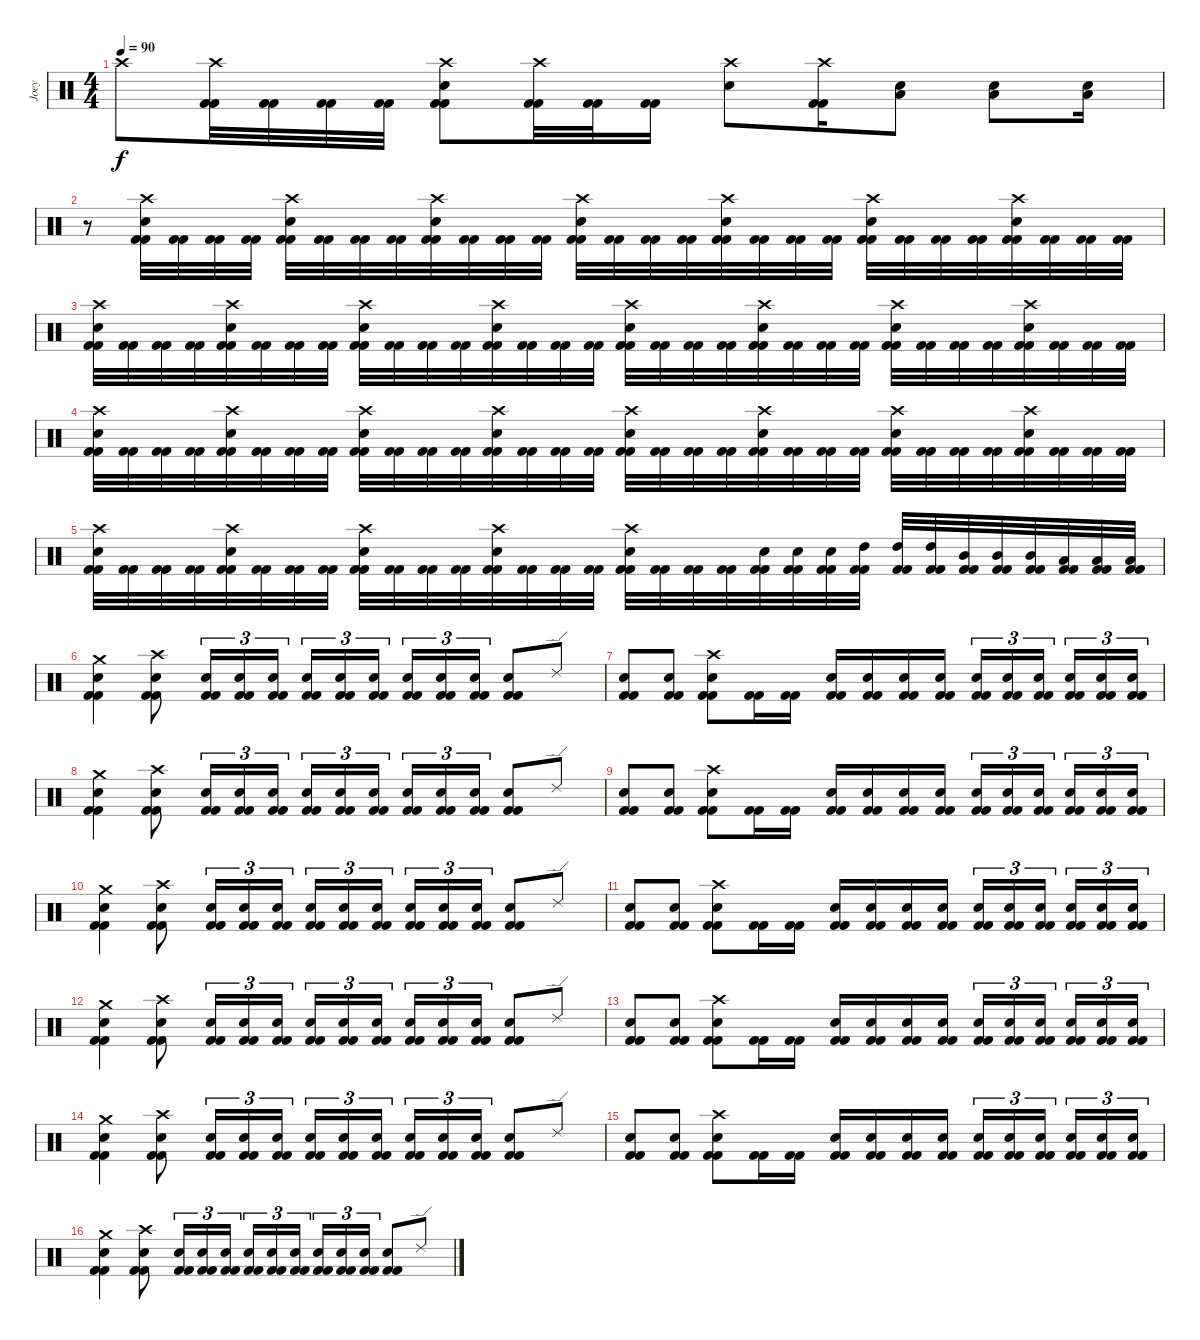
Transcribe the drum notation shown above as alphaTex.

\track ("Joey" "Joey") {instrument percussion}
\staff {score}
\articulation defaults
\ts (4 4)
\tempo 90
\clef neutral
\ks c "Crash high (hit)".8{dy f}
("Crash high (hit)" "Kick (hit) 2" "Kick (hit) 2").32 ("Kick (hit) 2" "Kick (hit) 2").32 ("Kick (hit) 2" "Kick (hit) 2").32 ("Kick (hit) 2" "Kick (hit) 2").32 ("Electric Snare (hit)" "Crash high (hit)" "Kick (hit) 2" "Kick (hit) 2").8 ("Crash high (hit)" "Kick (hit) 2" "Kick (hit) 2").32 ("Kick (hit) 2" "Kick (hit) 2").32 ("Kick (hit) 2" "Kick (hit) 2").16 ("Electric Snare (hit)" "Crash high (hit)").8 ("Crash high (hit)" "Kick (hit) 2" "Kick (hit) 2").16 ("Electric Snare (hit)" "Low Tom (hit)").8 ("Electric Snare (hit)" "Low Tom (hit)").8 ("Electric Snare (hit)" "Low Tom (hit)").16 |
r.8 ("Electric Snare (hit)" "Crash high (hit)" "Kick (hit) 2" "Kick (hit) 2").32 ("Kick (hit) 2" "Kick (hit) 2").32 ("Kick (hit) 2" "Kick (hit) 2").32 ("Kick (hit) 2" "Kick (hit) 2").32 ("Electric Snare (hit)" "Crash high (hit)" "Kick (hit) 2" "Kick (hit) 2").32 ("Kick (hit) 2" "Kick (hit) 2").32 ("Kick (hit) 2" "Kick (hit) 2").32 ("Kick (hit) 2" "Kick (hit) 2").32 ("Electric Snare (hit)" "Crash high (hit)" "Kick (hit) 2" "Kick (hit) 2").32 ("Kick (hit) 2" "Kick (hit) 2").32 ("Kick (hit) 2" "Kick (hit) 2").32 ("Kick (hit) 2" "Kick (hit) 2").32 ("Electric Snare (hit)" "Crash high (hit)" "Kick (hit) 2" "Kick (hit) 2").32 ("Kick (hit) 2" "Kick (hit) 2").32 ("Kick (hit) 2" "Kick (hit) 2").32 ("Kick (hit) 2" "Kick (hit) 2").32 ("Electric Snare (hit)" "Crash high (hit)" "Kick (hit) 2" "Kick (hit) 2").32 ("Kick (hit) 2" "Kick (hit) 2").32 ("Kick (hit) 2" "Kick (hit) 2").32 ("Kick (hit) 2" "Kick (hit) 2").32 ("Electric Snare (hit)" "Crash high (hit)" "Kick (hit) 2" "Kick (hit) 2").32 ("Kick (hit) 2" "Kick (hit) 2").32 ("Kick (hit) 2" "Kick (hit) 2").32 ("Kick (hit) 2" "Kick (hit) 2").32 ("Electric Snare (hit)" "Crash high (hit)" "Kick (hit) 2" "Kick (hit) 2").32 ("Kick (hit) 2" "Kick (hit) 2").32 ("Kick (hit) 2" "Kick (hit) 2").32 ("Kick (hit) 2" "Kick (hit) 2").32 |
("Electric Snare (hit)" "Crash high (hit)" "Kick (hit) 2" "Kick (hit) 2").32 ("Kick (hit) 2" "Kick (hit) 2").32 ("Kick (hit) 2" "Kick (hit) 2").32 ("Kick (hit) 2" "Kick (hit) 2").32 ("Electric Snare (hit)" "Crash high (hit)" "Kick (hit) 2" "Kick (hit) 2").32 ("Kick (hit) 2" "Kick (hit) 2").32 ("Kick (hit) 2" "Kick (hit) 2").32 ("Kick (hit) 2" "Kick (hit) 2").32 ("Electric Snare (hit)" "Crash high (hit)" "Kick (hit) 2" "Kick (hit) 2").32 ("Kick (hit) 2" "Kick (hit) 2").32 ("Kick (hit) 2" "Kick (hit) 2").32 ("Kick (hit) 2" "Kick (hit) 2").32 ("Electric Snare (hit)" "Crash high (hit)" "Kick (hit) 2" "Kick (hit) 2").32 ("Kick (hit) 2" "Kick (hit) 2").32 ("Kick (hit) 2" "Kick (hit) 2").32 ("Kick (hit) 2" "Kick (hit) 2").32 ("Electric Snare (hit)" "Crash high (hit)" "Kick (hit) 2" "Kick (hit) 2").32 ("Kick (hit) 2" "Kick (hit) 2").32 ("Kick (hit) 2" "Kick (hit) 2").32 ("Kick (hit) 2" "Kick (hit) 2").32 ("Electric Snare (hit)" "Crash high (hit)" "Kick (hit) 2" "Kick (hit) 2").32 ("Kick (hit) 2" "Kick (hit) 2").32 ("Kick (hit) 2" "Kick (hit) 2").32 ("Kick (hit) 2" "Kick (hit) 2").32 ("Electric Snare (hit)" "Crash high (hit)" "Kick (hit) 2" "Kick (hit) 2").32 ("Kick (hit) 2" "Kick (hit) 2").32 ("Kick (hit) 2" "Kick (hit) 2").32 ("Kick (hit) 2" "Kick (hit) 2").32 ("Electric Snare (hit)" "Crash high (hit)" "Kick (hit) 2" "Kick (hit) 2").32 ("Kick (hit) 2" "Kick (hit) 2").32 ("Kick (hit) 2" "Kick (hit) 2").32 ("Kick (hit) 2" "Kick (hit) 2").32 |
("Electric Snare (hit)" "Crash high (hit)" "Kick (hit) 2" "Kick (hit) 2").32 ("Kick (hit) 2" "Kick (hit) 2").32 ("Kick (hit) 2" "Kick (hit) 2").32 ("Kick (hit) 2" "Kick (hit) 2").32 ("Electric Snare (hit)" "Crash high (hit)" "Kick (hit) 2" "Kick (hit) 2").32 ("Kick (hit) 2" "Kick (hit) 2").32 ("Kick (hit) 2" "Kick (hit) 2").32 ("Kick (hit) 2" "Kick (hit) 2").32 ("Electric Snare (hit)" "Crash high (hit)" "Kick (hit) 2" "Kick (hit) 2").32 ("Kick (hit) 2" "Kick (hit) 2").32 ("Kick (hit) 2" "Kick (hit) 2").32 ("Kick (hit) 2" "Kick (hit) 2").32 ("Electric Snare (hit)" "Crash high (hit)" "Kick (hit) 2" "Kick (hit) 2").32 ("Kick (hit) 2" "Kick (hit) 2").32 ("Kick (hit) 2" "Kick (hit) 2").32 ("Kick (hit) 2" "Kick (hit) 2").32 ("Electric Snare (hit)" "Crash high (hit)" "Kick (hit) 2" "Kick (hit) 2").32 ("Kick (hit) 2" "Kick (hit) 2").32 ("Kick (hit) 2" "Kick (hit) 2").32 ("Kick (hit) 2" "Kick (hit) 2").32 ("Electric Snare (hit)" "Crash high (hit)" "Kick (hit) 2" "Kick (hit) 2").32 ("Kick (hit) 2" "Kick (hit) 2").32 ("Kick (hit) 2" "Kick (hit) 2").32 ("Kick (hit) 2" "Kick (hit) 2").32 ("Electric Snare (hit)" "Crash high (hit)" "Kick (hit) 2" "Kick (hit) 2").32 ("Kick (hit) 2" "Kick (hit) 2").32 ("Kick (hit) 2" "Kick (hit) 2").32 ("Kick (hit) 2" "Kick (hit) 2").32 ("Electric Snare (hit)" "Crash high (hit)" "Kick (hit) 2" "Kick (hit) 2").32 ("Kick (hit) 2" "Kick (hit) 2").32 ("Kick (hit) 2" "Kick (hit) 2").32 ("Kick (hit) 2" "Kick (hit) 2").32 |
("Electric Snare (hit)" "Crash high (hit)" "Kick (hit) 2" "Kick (hit) 2").32 ("Kick (hit) 2" "Kick (hit) 2").32 ("Kick (hit) 2" "Kick (hit) 2").32 ("Kick (hit) 2" "Kick (hit) 2").32 ("Electric Snare (hit)" "Crash high (hit)" "Kick (hit) 2" "Kick (hit) 2").32 ("Kick (hit) 2" "Kick (hit) 2").32 ("Kick (hit) 2" "Kick (hit) 2").32 ("Kick (hit) 2" "Kick (hit) 2").32 ("Electric Snare (hit)" "Crash high (hit)" "Kick (hit) 2" "Kick (hit) 2").32 ("Kick (hit) 2" "Kick (hit) 2").32 ("Kick (hit) 2" "Kick (hit) 2").32 ("Kick (hit) 2" "Kick (hit) 2").32 ("Electric Snare (hit)" "Crash high (hit)" "Kick (hit) 2" "Kick (hit) 2").32 ("Kick (hit) 2" "Kick (hit) 2").32 ("Kick (hit) 2" "Kick (hit) 2").32 ("Kick (hit) 2" "Kick (hit) 2").32 ("Electric Snare (hit)" "Crash high (hit)" "Kick (hit) 2" "Kick (hit) 2").32 ("Kick (hit) 2" "Kick (hit) 2").32 ("Kick (hit) 2" "Kick (hit) 2").32 ("Kick (hit) 2" "Kick (hit) 2").32 ("Electric Snare (hit)" "Kick (hit) 2" "Kick (hit) 2").32 ("Electric Snare (hit)" "Kick (hit) 2" "Kick (hit) 2").32 ("Electric Snare (hit)" "Kick (hit) 2" "Kick (hit) 2").32 ("High Tom (hit)" "Kick (hit) 2" "Kick (hit) 2").32 ("High Tom (hit)" "Kick (hit) 2" "Kick (hit) 2").32 ("High Tom (hit)" "Kick (hit) 2" "Kick (hit) 2").32 ("Mid Tom (hit)" "Kick (hit) 2" "Kick (hit) 2").32 ("Mid Tom (hit)" "Kick (hit) 2" "Kick (hit) 2").32 ("Mid Tom (hit)" "Kick (hit) 2" "Kick (hit) 2").32 ("Low Tom (hit)" "Kick (hit) 2" "Kick (hit) 2").32 ("Low Tom (hit)" "Kick (hit) 2" "Kick (hit) 2").32 ("Low Tom (hit)" "Kick (hit) 2" "Kick (hit) 2").32 |
("Electric Snare (hit)" "Crash medium (hit)" "Kick (hit) 2" "Kick (hit) 2").4 ("Electric Snare (hit)" "Crash high (hit)" "Kick (hit) 2" "Kick (hit) 2").8 ("Electric Snare (hit)" "Kick (hit) 2" "Kick (hit) 2").16{tu (3 2)} ("Electric Snare (hit)" "Kick (hit) 2" "Kick (hit) 2").16{tu (3 2)} ("Electric Snare (hit)" "Kick (hit) 2" "Kick (hit) 2").16{tu (3 2)} ("Electric Snare (hit)" "Kick (hit) 2" "Kick (hit) 2").16{tu (3 2)} ("Electric Snare (hit)" "Kick (hit) 2" "Kick (hit) 2").16{tu (3 2)} ("Electric Snare (hit)" "Kick (hit) 2" "Kick (hit) 2").16{tu (3 2)} ("Electric Snare (hit)" "Kick (hit) 2" "Kick (hit) 2").16{tu (3 2)} ("Electric Snare (hit)" "Kick (hit) 2" "Kick (hit) 2").16{tu (3 2)} ("Electric Snare (hit)" "Kick (hit) 2" "Kick (hit) 2").16{tu (3 2)} ("Electric Snare (hit)" "Kick (hit) 2" "Kick (hit) 2").8 "Ride (edge) 2".8 |
("Electric Snare (hit)" "Kick (hit) 2" "Kick (hit) 2").8 ("Electric Snare (hit)" "Kick (hit) 2" "Kick (hit) 2").8 ("Electric Snare (hit)" "Crash high (hit)" "Kick (hit) 2" "Kick (hit) 2").8 ("Kick (hit) 2" "Kick (hit) 2").16 ("Kick (hit) 2" "Kick (hit) 2").16 ("Electric Snare (hit)" "Kick (hit) 2" "Kick (hit) 2").16 ("Electric Snare (hit)" "Kick (hit) 2" "Kick (hit) 2").16 ("Electric Snare (hit)" "Kick (hit) 2" "Kick (hit) 2").16 ("Electric Snare (hit)" "Kick (hit) 2" "Kick (hit) 2").16 ("Electric Snare (hit)" "Kick (hit) 2" "Kick (hit) 2").16{tu (3 2)} ("Electric Snare (hit)" "Kick (hit) 2" "Kick (hit) 2").16{tu (3 2)} ("Electric Snare (hit)" "Kick (hit) 2" "Kick (hit) 2").16{tu (3 2)} ("Electric Snare (hit)" "Kick (hit) 2" "Kick (hit) 2").16{tu (3 2)} ("Electric Snare (hit)" "Kick (hit) 2" "Kick (hit) 2").16{tu (3 2)} ("Electric Snare (hit)" "Kick (hit) 2" "Kick (hit) 2").16{tu (3 2)} |
("Electric Snare (hit)" "Crash medium (hit)" "Kick (hit) 2" "Kick (hit) 2").4 ("Electric Snare (hit)" "Crash high (hit)" "Kick (hit) 2" "Kick (hit) 2").8 ("Electric Snare (hit)" "Kick (hit) 2" "Kick (hit) 2").16{tu (3 2)} ("Electric Snare (hit)" "Kick (hit) 2" "Kick (hit) 2").16{tu (3 2)} ("Electric Snare (hit)" "Kick (hit) 2" "Kick (hit) 2").16{tu (3 2)} ("Electric Snare (hit)" "Kick (hit) 2" "Kick (hit) 2").16{tu (3 2)} ("Electric Snare (hit)" "Kick (hit) 2" "Kick (hit) 2").16{tu (3 2)} ("Electric Snare (hit)" "Kick (hit) 2" "Kick (hit) 2").16{tu (3 2)} ("Electric Snare (hit)" "Kick (hit) 2" "Kick (hit) 2").16{tu (3 2)} ("Electric Snare (hit)" "Kick (hit) 2" "Kick (hit) 2").16{tu (3 2)} ("Electric Snare (hit)" "Kick (hit) 2" "Kick (hit) 2").16{tu (3 2)} ("Electric Snare (hit)" "Kick (hit) 2" "Kick (hit) 2").8 "Ride (edge) 2".8 |
("Electric Snare (hit)" "Kick (hit) 2" "Kick (hit) 2").8 ("Electric Snare (hit)" "Kick (hit) 2" "Kick (hit) 2").8 ("Electric Snare (hit)" "Crash high (hit)" "Kick (hit) 2" "Kick (hit) 2").8 ("Kick (hit) 2" "Kick (hit) 2").16 ("Kick (hit) 2" "Kick (hit) 2").16 ("Electric Snare (hit)" "Kick (hit) 2" "Kick (hit) 2").16 ("Electric Snare (hit)" "Kick (hit) 2" "Kick (hit) 2").16 ("Electric Snare (hit)" "Kick (hit) 2" "Kick (hit) 2").16 ("Electric Snare (hit)" "Kick (hit) 2" "Kick (hit) 2").16 ("Electric Snare (hit)" "Kick (hit) 2" "Kick (hit) 2").16{tu (3 2)} ("Electric Snare (hit)" "Kick (hit) 2" "Kick (hit) 2").16{tu (3 2)} ("Electric Snare (hit)" "Kick (hit) 2" "Kick (hit) 2").16{tu (3 2)} ("Electric Snare (hit)" "Kick (hit) 2" "Kick (hit) 2").16{tu (3 2)} ("Electric Snare (hit)" "Kick (hit) 2" "Kick (hit) 2").16{tu (3 2)} ("Electric Snare (hit)" "Kick (hit) 2" "Kick (hit) 2").16{tu (3 2)} |
("Electric Snare (hit)" "Crash medium (hit)" "Kick (hit) 2" "Kick (hit) 2").4 ("Electric Snare (hit)" "Crash high (hit)" "Kick (hit) 2" "Kick (hit) 2").8 ("Electric Snare (hit)" "Kick (hit) 2" "Kick (hit) 2").16{tu (3 2)} ("Electric Snare (hit)" "Kick (hit) 2" "Kick (hit) 2").16{tu (3 2)} ("Electric Snare (hit)" "Kick (hit) 2" "Kick (hit) 2").16{tu (3 2)} ("Electric Snare (hit)" "Kick (hit) 2" "Kick (hit) 2").16{tu (3 2)} ("Electric Snare (hit)" "Kick (hit) 2" "Kick (hit) 2").16{tu (3 2)} ("Electric Snare (hit)" "Kick (hit) 2" "Kick (hit) 2").16{tu (3 2)} ("Electric Snare (hit)" "Kick (hit) 2" "Kick (hit) 2").16{tu (3 2)} ("Electric Snare (hit)" "Kick (hit) 2" "Kick (hit) 2").16{tu (3 2)} ("Electric Snare (hit)" "Kick (hit) 2" "Kick (hit) 2").16{tu (3 2)} ("Electric Snare (hit)" "Kick (hit) 2" "Kick (hit) 2").8 "Ride (edge) 2".8 |
("Electric Snare (hit)" "Kick (hit) 2" "Kick (hit) 2").8 ("Electric Snare (hit)" "Kick (hit) 2" "Kick (hit) 2").8 ("Electric Snare (hit)" "Crash high (hit)" "Kick (hit) 2" "Kick (hit) 2").8 ("Kick (hit) 2" "Kick (hit) 2").16 ("Kick (hit) 2" "Kick (hit) 2").16 ("Electric Snare (hit)" "Kick (hit) 2" "Kick (hit) 2").16 ("Electric Snare (hit)" "Kick (hit) 2" "Kick (hit) 2").16 ("Electric Snare (hit)" "Kick (hit) 2" "Kick (hit) 2").16 ("Electric Snare (hit)" "Kick (hit) 2" "Kick (hit) 2").16 ("Electric Snare (hit)" "Kick (hit) 2" "Kick (hit) 2").16{tu (3 2)} ("Electric Snare (hit)" "Kick (hit) 2" "Kick (hit) 2").16{tu (3 2)} ("Electric Snare (hit)" "Kick (hit) 2" "Kick (hit) 2").16{tu (3 2)} ("Electric Snare (hit)" "Kick (hit) 2" "Kick (hit) 2").16{tu (3 2)} ("Electric Snare (hit)" "Kick (hit) 2" "Kick (hit) 2").16{tu (3 2)} ("Electric Snare (hit)" "Kick (hit) 2" "Kick (hit) 2").16{tu (3 2)} |
("Electric Snare (hit)" "Crash medium (hit)" "Kick (hit) 2" "Kick (hit) 2").4 ("Electric Snare (hit)" "Crash high (hit)" "Kick (hit) 2" "Kick (hit) 2").8 ("Electric Snare (hit)" "Kick (hit) 2" "Kick (hit) 2").16{tu (3 2)} ("Electric Snare (hit)" "Kick (hit) 2" "Kick (hit) 2").16{tu (3 2)} ("Electric Snare (hit)" "Kick (hit) 2" "Kick (hit) 2").16{tu (3 2)} ("Electric Snare (hit)" "Kick (hit) 2" "Kick (hit) 2").16{tu (3 2)} ("Electric Snare (hit)" "Kick (hit) 2" "Kick (hit) 2").16{tu (3 2)} ("Electric Snare (hit)" "Kick (hit) 2" "Kick (hit) 2").16{tu (3 2)} ("Electric Snare (hit)" "Kick (hit) 2" "Kick (hit) 2").16{tu (3 2)} ("Electric Snare (hit)" "Kick (hit) 2" "Kick (hit) 2").16{tu (3 2)} ("Electric Snare (hit)" "Kick (hit) 2" "Kick (hit) 2").16{tu (3 2)} ("Electric Snare (hit)" "Kick (hit) 2" "Kick (hit) 2").8 "Ride (edge) 2".8 |
("Electric Snare (hit)" "Kick (hit) 2" "Kick (hit) 2").8 ("Electric Snare (hit)" "Kick (hit) 2" "Kick (hit) 2").8 ("Electric Snare (hit)" "Crash high (hit)" "Kick (hit) 2" "Kick (hit) 2").8 ("Kick (hit) 2" "Kick (hit) 2").16 ("Kick (hit) 2" "Kick (hit) 2").16 ("Electric Snare (hit)" "Kick (hit) 2" "Kick (hit) 2").16 ("Electric Snare (hit)" "Kick (hit) 2" "Kick (hit) 2").16 ("Electric Snare (hit)" "Kick (hit) 2" "Kick (hit) 2").16 ("Electric Snare (hit)" "Kick (hit) 2" "Kick (hit) 2").16 ("Electric Snare (hit)" "Kick (hit) 2" "Kick (hit) 2").16{tu (3 2)} ("Electric Snare (hit)" "Kick (hit) 2" "Kick (hit) 2").16{tu (3 2)} ("Electric Snare (hit)" "Kick (hit) 2" "Kick (hit) 2").16{tu (3 2)} ("Electric Snare (hit)" "Kick (hit) 2" "Kick (hit) 2").16{tu (3 2)} ("Electric Snare (hit)" "Kick (hit) 2" "Kick (hit) 2").16{tu (3 2)} ("Electric Snare (hit)" "Kick (hit) 2" "Kick (hit) 2").16{tu (3 2)} |
("Electric Snare (hit)" "Crash medium (hit)" "Kick (hit) 2" "Kick (hit) 2").4 ("Electric Snare (hit)" "Crash high (hit)" "Kick (hit) 2" "Kick (hit) 2").8 ("Electric Snare (hit)" "Kick (hit) 2" "Kick (hit) 2").16{tu (3 2)} ("Electric Snare (hit)" "Kick (hit) 2" "Kick (hit) 2").16{tu (3 2)} ("Electric Snare (hit)" "Kick (hit) 2" "Kick (hit) 2").16{tu (3 2)} ("Electric Snare (hit)" "Kick (hit) 2" "Kick (hit) 2").16{tu (3 2)} ("Electric Snare (hit)" "Kick (hit) 2" "Kick (hit) 2").16{tu (3 2)} ("Electric Snare (hit)" "Kick (hit) 2" "Kick (hit) 2").16{tu (3 2)} ("Electric Snare (hit)" "Kick (hit) 2" "Kick (hit) 2").16{tu (3 2)} ("Electric Snare (hit)" "Kick (hit) 2" "Kick (hit) 2").16{tu (3 2)} ("Electric Snare (hit)" "Kick (hit) 2" "Kick (hit) 2").16{tu (3 2)} ("Electric Snare (hit)" "Kick (hit) 2" "Kick (hit) 2").8 "Ride (edge) 2".8 |
("Electric Snare (hit)" "Kick (hit) 2" "Kick (hit) 2").8 ("Electric Snare (hit)" "Kick (hit) 2" "Kick (hit) 2").8 ("Electric Snare (hit)" "Crash high (hit)" "Kick (hit) 2" "Kick (hit) 2").8 ("Kick (hit) 2" "Kick (hit) 2").16 ("Kick (hit) 2" "Kick (hit) 2").16 ("Electric Snare (hit)" "Kick (hit) 2" "Kick (hit) 2").16 ("Electric Snare (hit)" "Kick (hit) 2" "Kick (hit) 2").16 ("Electric Snare (hit)" "Kick (hit) 2" "Kick (hit) 2").16 ("Electric Snare (hit)" "Kick (hit) 2" "Kick (hit) 2").16 ("Electric Snare (hit)" "Kick (hit) 2" "Kick (hit) 2").16{tu (3 2)} ("Electric Snare (hit)" "Kick (hit) 2" "Kick (hit) 2").16{tu (3 2)} ("Electric Snare (hit)" "Kick (hit) 2" "Kick (hit) 2").16{tu (3 2)} ("Electric Snare (hit)" "Kick (hit) 2" "Kick (hit) 2").16{tu (3 2)} ("Electric Snare (hit)" "Kick (hit) 2" "Kick (hit) 2").16{tu (3 2)} ("Electric Snare (hit)" "Kick (hit) 2" "Kick (hit) 2").16{tu (3 2)} |
("Electric Snare (hit)" "Crash medium (hit)" "Kick (hit) 2" "Kick (hit) 2").4 ("Electric Snare (hit)" "Crash high (hit)" "Kick (hit) 2" "Kick (hit) 2").8 ("Electric Snare (hit)" "Kick (hit) 2" "Kick (hit) 2").16{tu (3 2)} ("Electric Snare (hit)" "Kick (hit) 2" "Kick (hit) 2").16{tu (3 2)} ("Electric Snare (hit)" "Kick (hit) 2" "Kick (hit) 2").16{tu (3 2)} ("Electric Snare (hit)" "Kick (hit) 2" "Kick (hit) 2").16{tu (3 2)} ("Electric Snare (hit)" "Kick (hit) 2" "Kick (hit) 2").16{tu (3 2)} ("Electric Snare (hit)" "Kick (hit) 2" "Kick (hit) 2").16{tu (3 2)} ("Electric Snare (hit)" "Kick (hit) 2" "Kick (hit) 2").16{tu (3 2)} ("Electric Snare (hit)" "Kick (hit) 2" "Kick (hit) 2").16{tu (3 2)} ("Electric Snare (hit)" "Kick (hit) 2" "Kick (hit) 2").16{tu (3 2)} ("Electric Snare (hit)" "Kick (hit) 2" "Kick (hit) 2").8 "Ride (edge) 2".8
